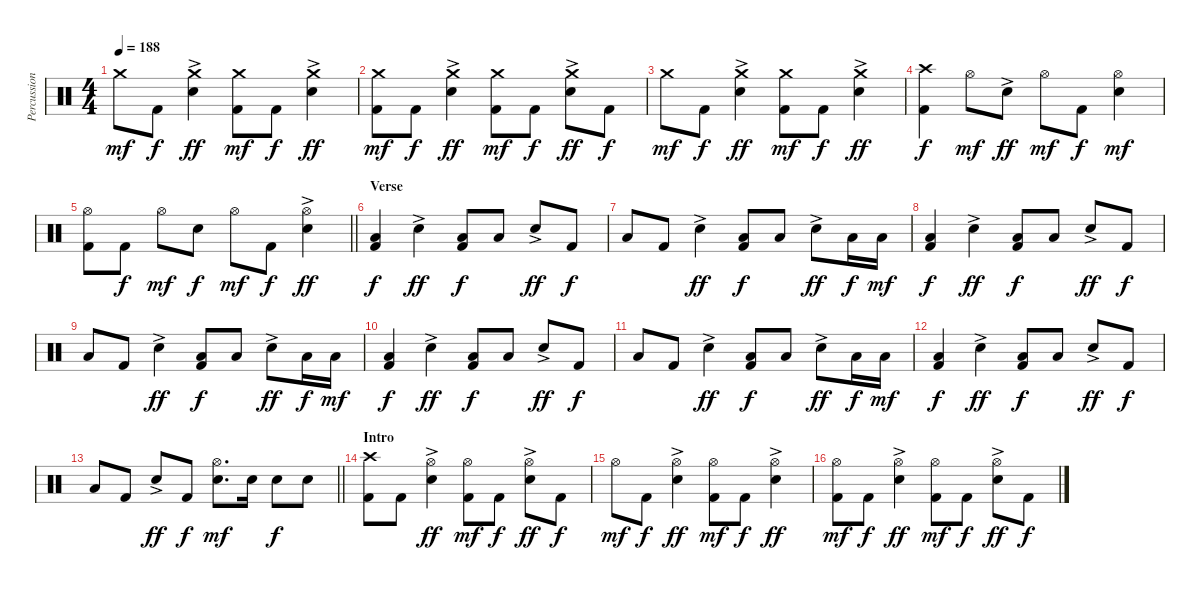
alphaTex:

\track ("Percussion" "Percussion") {instrument percussion}
\staff {score}
\articulation defaults
\ts (4 4)
\tempo 188
\clef neutral
\ks c "Crash medium (hit)".8{dy mf} "Kick (hit) 2".8{dy f}
("Crash medium (hit)" "Electric Snare (hit)"{ac}).4{dy ff} ("Crash medium (hit)" "Kick (hit) 2").8{dy mf} "Kick (hit) 2".8{dy f} ("Crash medium (hit)" "Electric Snare (hit)"{ac}).4{dy ff} |
("Crash medium (hit)" "Kick (hit) 2").8{dy mf} "Kick (hit) 2".8{dy f} ("Crash medium (hit)" "Electric Snare (hit)"{ac}).4{dy ff} ("Crash medium (hit)" "Kick (hit) 2").8{dy mf} "Kick (hit) 2".8{dy f} ("Crash medium (hit)" "Electric Snare (hit)"{ac}).8{dy ff} "Kick (hit) 2".8{dy f} |
"Crash medium (hit)".8{dy mf} "Kick (hit) 2".8{dy f} ("Crash medium (hit)" "Electric Snare (hit)"{ac}).4{dy ff} ("Crash medium (hit)" "Kick (hit) 2").8{dy mf} "Kick (hit) 2".8{dy f} ("Crash medium (hit)" "Electric Snare (hit)"{ac}).4{dy ff} |
("Crash high (hit)" "Kick (hit) 2").4{dy f} "Hi-Hat (open)".8{dy mf} "Electric Snare (hit)"{ac}.8{dy ff} "Hi-Hat (open)".8{dy mf} "Kick (hit) 2".8{dy f} ("Hi-Hat (open)" "Electric Snare (hit)").4{dy mf} |
\barLineRight lightlight
("Hi-Hat (open)" "Kick (hit) 2").8 "Kick (hit) 2".8{dy f} "Hi-Hat (open)".8{dy mf} "Electric Snare (hit)".8{dy f} "Hi-Hat (open)".8{dy mf} "Kick (hit) 2".8{dy f} ("Hi-Hat (open)" "Electric Snare (hit)"{ac}).4{dy ff} |
\section ("" "Verse")
("Low Tom (hit)" "Kick (hit) 2").4{dy f} "Electric Snare (hit)"{ac}.4{dy ff} ("Low Tom (hit)" "Kick (hit) 2").8{dy f} "Low Tom (hit)".8 "Electric Snare (hit)"{ac}.8{dy ff} "Kick (hit) 2".8{dy f} |
"Low Tom (hit)".8 "Kick (hit) 2".8 "Electric Snare (hit)"{ac}.4{dy ff} ("Low Tom (hit)" "Kick (hit) 2").8{dy f} "Low Tom (hit)".8 "Electric Snare (hit)"{ac}.8{dy ff} "Low Tom (hit)".16{dy f} "Low Tom (hit)".16{dy mf} |
("Low Tom (hit)" "Kick (hit) 2").4{dy f} "Electric Snare (hit)"{ac}.4{dy ff} ("Low Tom (hit)" "Kick (hit) 2").8{dy f} "Low Tom (hit)".8 "Electric Snare (hit)"{ac}.8{dy ff} "Kick (hit) 2".8{dy f} |
"Low Tom (hit)".8 "Kick (hit) 2".8 "Electric Snare (hit)"{ac}.4{dy ff} ("Low Tom (hit)" "Kick (hit) 2").8{dy f} "Low Tom (hit)".8 "Electric Snare (hit)"{ac}.8{dy ff} "Low Tom (hit)".16{dy f} "Low Tom (hit)".16{dy mf} |
("Low Tom (hit)" "Kick (hit) 2").4{dy f} "Electric Snare (hit)"{ac}.4{dy ff} ("Low Tom (hit)" "Kick (hit) 2").8{dy f} "Low Tom (hit)".8 "Electric Snare (hit)"{ac}.8{dy ff} "Kick (hit) 2".8{dy f} |
"Low Tom (hit)".8 "Kick (hit) 2".8 "Electric Snare (hit)"{ac}.4{dy ff} ("Low Tom (hit)" "Kick (hit) 2").8{dy f} "Low Tom (hit)".8 "Electric Snare (hit)"{ac}.8{dy ff} "Low Tom (hit)".16{dy f} "Low Tom (hit)".16{dy mf} |
("Low Tom (hit)" "Kick (hit) 2").4{dy f} "Electric Snare (hit)"{ac}.4{dy ff} ("Low Tom (hit)" "Kick (hit) 2").8{dy f} "Low Tom (hit)".8 "Electric Snare (hit)"{ac}.8{dy ff} "Kick (hit) 2".8{dy f} |
\barLineRight lightlight "Low Tom (hit)".8 "Kick (hit) 2".8 "Electric Snare (hit)"{ac}.8{dy ff} "Kick (hit) 2".8{dy f}
("Hi-Hat (open)" "Electric Snare (hit)").8{d dy mf} "Electric Snare (hit)".16 "Electric Snare (hit)".8{dy f} "Electric Snare (hit)".8 |
\section ("" "Intro")
("Crash high (hit)" "Kick (hit) 2").8 "Kick (hit) 2".8 ("Hi-Hat (open)" "Electric Snare (hit)"{ac}).4{dy ff} ("Hi-Hat (open)" "Kick (hit) 2").8{dy mf} "Kick (hit) 2".8{dy f} ("Hi-Hat (open)" "Electric Snare (hit)"{ac}).8{dy ff} "Kick (hit) 2".8{dy f} |
"Hi-Hat (open)".8{dy mf} "Kick (hit) 2".8{dy f} ("Hi-Hat (open)" "Electric Snare (hit)"{ac}).4{dy ff} ("Hi-Hat (open)" "Kick (hit) 2").8{dy mf} "Kick (hit) 2".8{dy f} ("Hi-Hat (open)" "Electric Snare (hit)"{ac}).4{dy ff} |
("Hi-Hat (open)" "Kick (hit) 2").8{dy mf} "Kick (hit) 2".8{dy f} ("Hi-Hat (open)" "Electric Snare (hit)"{ac}).4{dy ff} ("Hi-Hat (open)" "Kick (hit) 2").8{dy mf} "Kick (hit) 2".8{dy f} ("Hi-Hat (open)" "Electric Snare (hit)"{ac}).8{dy ff} "Kick (hit) 2".8{dy f}
